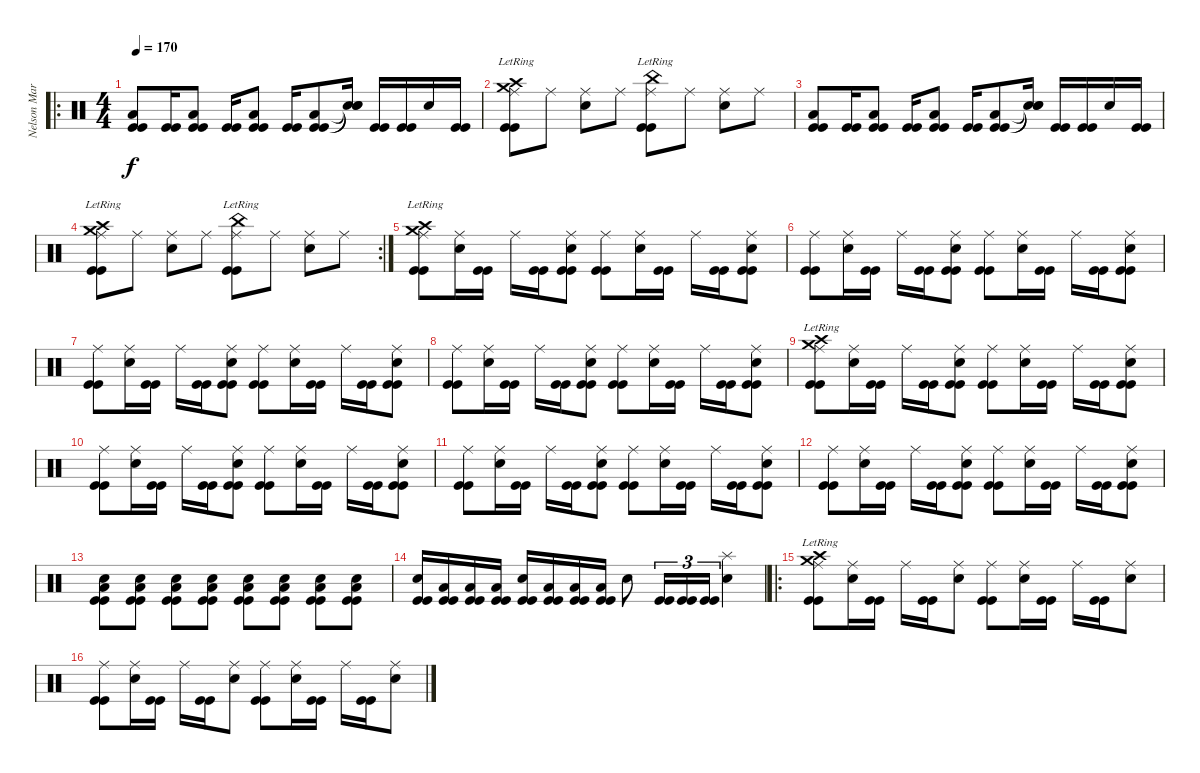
\track ("Nelson Maria" "Nelson Mar") {instrument percussion}
\staff {score}
\articulation defaults
\ro
\ts (4 4)
\tempo 170
\clef neutral
\ks c
("Low Tom (hit)" "Kick (hit)" "Kick (hit)").8{dy f} ("Kick (hit)" "Kick (hit)").16 ("Low Tom (hit)" "Kick (hit)" "Kick (hit)").8 ("Kick (hit)" "Kick (hit)").16 ("Low Tom (hit)" "Kick (hit)" "Kick (hit)").8 ("Kick (hit)" "Kick (hit)").16 ("Low Tom (hit)" "Kick (hit)" "Kick (hit)").8 ("Snare (hit)"{t} "Snare (hit)"{t} "Snare (hit)"{t}).16 ("Kick (hit)" "Kick (hit)").16 ("Kick (hit)" "Kick (hit)").16 "Snare (hit) 2".16 ("Kick (hit)" "Kick (hit)").16 |
("Crash high (hit)"{lr} "Crash medium (hit)"{lr} "Ride (middle)" "Kick (hit)" "Kick (hit)").8 "Ride (middle)".8 ("Snare (hit) 2" "Ride (middle)").8 "Ride (middle)".8 ("China (hit)"{lr} "Ride (middle)" "Kick (hit)" "Kick (hit)").8 "Ride (middle)".8 ("Snare (hit) 2" "Ride (middle)").8 "Ride (middle)".8 |
("Low Tom (hit)" "Kick (hit)" "Kick (hit)").8 ("Kick (hit)" "Kick (hit)").16 ("Low Tom (hit)" "Kick (hit)" "Kick (hit)").8 ("Kick (hit)" "Kick (hit)").16 ("Low Tom (hit)" "Kick (hit)" "Kick (hit)").8 ("Kick (hit)" "Kick (hit)").16 ("Low Tom (hit)" "Kick (hit)" "Kick (hit)").8 ("Snare (hit)"{t} "Snare (hit)"{t} "Snare (hit)"{t}).16 ("Kick (hit)" "Kick (hit)").16 ("Kick (hit)" "Kick (hit)").16 "Snare (hit) 2".16 ("Kick (hit)" "Kick (hit)").16 |
\rc 2
("Crash high (hit)"{lr} "Crash medium (hit)"{lr} "Ride (middle)" "Kick (hit)" "Kick (hit)").8 "Ride (middle)".8 ("Snare (hit) 2" "Ride (middle)").8 "Ride (middle)".8 ("China (hit)"{lr} "Ride (middle)" "Kick (hit)" "Kick (hit)").8 "Ride (middle)".8 ("Snare (hit) 2" "Ride (middle)").8 "Ride (middle)".8 |
("Crash high (hit)"{lr} "Crash medium (hit)"{lr} "Ride (middle)" "Kick (hit)" "Kick (hit)").8 ("Snare (hit) 2" "Ride (middle)").16 ("Kick (hit)" "Kick (hit)").16 "Ride (middle)".16 ("Kick (hit)" "Kick (hit)").16 ("Snare (hit) 2" "Ride (middle)" "Kick (hit)" "Kick (hit)").8 ("Ride (middle)" "Kick (hit)" "Kick (hit)").8 ("Snare (hit) 2" "Ride (middle)").16 ("Kick (hit)" "Kick (hit)").16 "Ride (middle)".16 ("Kick (hit)" "Kick (hit)").16 ("Snare (hit) 2" "Ride (middle)" "Kick (hit)" "Kick (hit)").8 |
("Ride (middle)" "Kick (hit)" "Kick (hit)").8 ("Snare (hit) 2" "Ride (middle)").16 ("Kick (hit)" "Kick (hit)").16 "Ride (middle)".16 ("Kick (hit)" "Kick (hit)").16 ("Snare (hit) 2" "Ride (middle)" "Kick (hit)" "Kick (hit)").8 ("Ride (middle)" "Kick (hit)" "Kick (hit)").8 ("Snare (hit) 2" "Ride (middle)").16 ("Kick (hit)" "Kick (hit)").16 "Ride (middle)".16 ("Kick (hit)" "Kick (hit)").16 ("Snare (hit) 2" "Ride (middle)" "Kick (hit)" "Kick (hit)").8 |
("Ride (middle)" "Kick (hit)" "Kick (hit)").8 ("Snare (hit) 2" "Ride (middle)").16 ("Kick (hit)" "Kick (hit)").16 "Ride (middle)".16 ("Kick (hit)" "Kick (hit)").16 ("Snare (hit) 2" "Ride (middle)" "Kick (hit)" "Kick (hit)").8 ("Ride (middle)" "Kick (hit)" "Kick (hit)").8 ("Snare (hit) 2" "Ride (middle)").16 ("Kick (hit)" "Kick (hit)").16 "Ride (middle)".16 ("Kick (hit)" "Kick (hit)").16 ("Snare (hit) 2" "Ride (middle)" "Kick (hit)" "Kick (hit)").8 |
("Ride (middle)" "Kick (hit)" "Kick (hit)").8 ("Snare (hit) 2" "Ride (middle)").16 ("Kick (hit)" "Kick (hit)").16 "Ride (middle)".16 ("Kick (hit)" "Kick (hit)").16 ("Snare (hit) 2" "Ride (middle)" "Kick (hit)" "Kick (hit)").8 ("Ride (middle)" "Kick (hit)" "Kick (hit)").8 ("Snare (hit) 2" "Ride (middle)").16 ("Kick (hit)" "Kick (hit)").16 "Ride (middle)".16 ("Kick (hit)" "Kick (hit)").16 ("Snare (hit) 2" "Ride (middle)" "Kick (hit)" "Kick (hit)").8 |
("Crash high (hit)"{lr} "Crash medium (hit)"{lr} "Ride (middle)" "Kick (hit)" "Kick (hit)").8 ("Snare (hit) 2" "Ride (middle)").16 ("Kick (hit)" "Kick (hit)").16 "Ride (middle)".16 ("Kick (hit)" "Kick (hit)").16 ("Snare (hit) 2" "Ride (middle)" "Kick (hit)" "Kick (hit)").8 ("Ride (middle)" "Kick (hit)" "Kick (hit)").8 ("Snare (hit) 2" "Ride (middle)").16 ("Kick (hit)" "Kick (hit)").16 "Ride (middle)".16 ("Kick (hit)" "Kick (hit)").16 ("Snare (hit) 2" "Ride (middle)" "Kick (hit)" "Kick (hit)").8 |
("Ride (middle)" "Kick (hit)" "Kick (hit)").8 ("Snare (hit) 2" "Ride (middle)").16 ("Kick (hit)" "Kick (hit)").16 "Ride (middle)".16 ("Kick (hit)" "Kick (hit)").16 ("Snare (hit) 2" "Ride (middle)" "Kick (hit)" "Kick (hit)").8 ("Ride (middle)" "Kick (hit)" "Kick (hit)").8 ("Snare (hit) 2" "Ride (middle)").16 ("Kick (hit)" "Kick (hit)").16 "Ride (middle)".16 ("Kick (hit)" "Kick (hit)").16 ("Snare (hit) 2" "Ride (middle)" "Kick (hit)" "Kick (hit)").8 |
("Ride (middle)" "Kick (hit)" "Kick (hit)").8 ("Snare (hit) 2" "Ride (middle)").16 ("Kick (hit)" "Kick (hit)").16 "Ride (middle)".16 ("Kick (hit)" "Kick (hit)").16 ("Snare (hit) 2" "Ride (middle)" "Kick (hit)" "Kick (hit)").8 ("Ride (middle)" "Kick (hit)" "Kick (hit)").8 ("Snare (hit) 2" "Ride (middle)").16 ("Kick (hit)" "Kick (hit)").16 "Ride (middle)".16 ("Kick (hit)" "Kick (hit)").16 ("Snare (hit) 2" "Ride (middle)" "Kick (hit)" "Kick (hit)").8 |
("Ride (middle)" "Kick (hit)" "Kick (hit)").8 ("Snare (hit) 2" "Ride (middle)").16 ("Kick (hit)" "Kick (hit)").16 "Ride (middle)".16 ("Kick (hit)" "Kick (hit)").16 ("Snare (hit) 2" "Ride (middle)" "Kick (hit)" "Kick (hit)").8 ("Ride (middle)" "Kick (hit)" "Kick (hit)").8 ("Snare (hit) 2" "Ride (middle)").16 ("Kick (hit)" "Kick (hit)").16 "Ride (middle)".16 ("Kick (hit)" "Kick (hit)").16 ("Snare (hit) 2" "Ride (middle)" "Kick (hit)" "Kick (hit)").8 |
("Snare (hit) 2" "Low Tom (hit)" "Kick (hit)" "Kick (hit)").8 ("Snare (hit) 2" "Low Tom (hit)" "Kick (hit)" "Kick (hit)").8 ("Snare (hit) 2" "Low Tom (hit)" "Kick (hit)" "Kick (hit)").8 ("Snare (hit) 2" "Low Tom (hit)" "Kick (hit)" "Kick (hit)").8 ("Snare (hit) 2" "Low Tom (hit)" "Kick (hit)" "Kick (hit)").8 ("Snare (hit) 2" "Low Tom (hit)" "Kick (hit)" "Kick (hit)").8 ("Snare (hit) 2" "Low Tom (hit)" "Kick (hit)" "Kick (hit)").8 ("Snare (hit) 2" "Low Tom (hit)" "Kick (hit)" "Kick (hit)").8 |
("Snare (hit) 2" "Kick (hit)" "Kick (hit)").16 ("Low Tom (hit)" "Kick (hit)" "Kick (hit)").16 ("Low Tom (hit)" "Kick (hit)" "Kick (hit)").16 ("Low Tom (hit)" "Kick (hit)" "Kick (hit)").16 ("Snare (hit) 2" "Kick (hit)" "Kick (hit)").16 ("Low Tom (hit)" "Kick (hit)" "Kick (hit)").16 ("Low Tom (hit)" "Kick (hit)" "Kick (hit)").16 ("Low Tom (hit)" "Kick (hit)" "Kick (hit)").16 "Snare (hit) 2".8 ("Kick (hit)" "Kick (hit)").16{tu (3 2)} ("Kick (hit)" "Kick (hit)").16{tu (3 2)} ("Kick (hit)" "Kick (hit)").16{tu (3 2)} ("Snare (hit) 2" "Splash (hit)").4 |
\ro
("Crash high (hit)"{lr} "Crash medium (hit)"{lr} "Ride (middle)" "Kick (hit)" "Kick (hit)").8 ("Snare (hit) 2" "Ride (middle)").16 ("Kick (hit)" "Kick (hit)").16 "Ride (middle)".16 ("Kick (hit)" "Kick (hit)").16 ("Snare (hit) 2" "Ride (middle)").8 ("Ride (middle)" "Kick (hit)" "Kick (hit)").8 ("Snare (hit) 2" "Ride (middle)").16 ("Kick (hit)" "Kick (hit)").16 "Ride (middle)".16 ("Kick (hit)" "Kick (hit)").16 ("Snare (hit) 2" "Ride (middle)").8 |
("Ride (middle)" "Kick (hit)" "Kick (hit)").8 ("Snare (hit) 2" "Ride (middle)").16 ("Kick (hit)" "Kick (hit)").16 "Ride (middle)".16 ("Kick (hit)" "Kick (hit)").16 ("Snare (hit) 2" "Ride (middle)").8 ("Ride (middle)" "Kick (hit)" "Kick (hit)").8 ("Snare (hit) 2" "Ride (middle)").16 ("Kick (hit)" "Kick (hit)").16 "Ride (middle)".16 ("Kick (hit)" "Kick (hit)").16 ("Snare (hit) 2" "Ride (middle)").8
